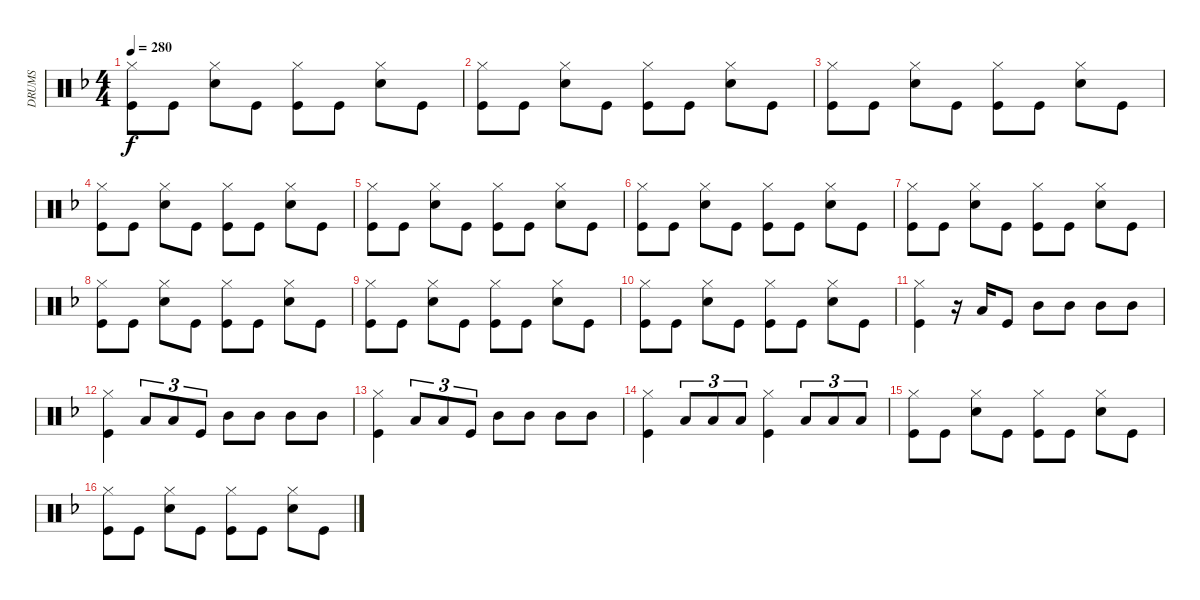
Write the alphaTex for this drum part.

\track ("DRUMS" "DRUMS") {instrument percussion}
\staff {score}
\articulation defaults
\ts (4 4)
\tempo 280
\clef neutral
\ks dminor
("Hi-Hat (closed)" "Kick (hit)").8{dy f} "Kick (hit)".8 ("Hi-Hat (closed)" "Snare (hit) 2").8 "Kick (hit)".8 ("Hi-Hat (closed)" "Kick (hit)").8 "Kick (hit)".8 ("Hi-Hat (closed)" "Snare (hit) 2").8 "Kick (hit)".8 |
("Hi-Hat (closed)" "Kick (hit)").8 "Kick (hit)".8 ("Hi-Hat (closed)" "Snare (hit) 2").8 "Kick (hit)".8 ("Hi-Hat (closed)" "Kick (hit)").8 "Kick (hit)".8 ("Hi-Hat (closed)" "Snare (hit) 2").8 "Kick (hit)".8 |
("Hi-Hat (closed)" "Kick (hit)").8 "Kick (hit)".8 ("Hi-Hat (closed)" "Snare (hit) 2").8 "Kick (hit)".8 ("Hi-Hat (closed)" "Kick (hit)").8 "Kick (hit)".8 ("Hi-Hat (closed)" "Snare (hit) 2").8 "Kick (hit)".8 |
("Hi-Hat (closed)" "Kick (hit)").8 "Kick (hit)".8 ("Hi-Hat (closed)" "Snare (hit) 2").8 "Kick (hit)".8 ("Hi-Hat (closed)" "Kick (hit)").8 "Kick (hit)".8 ("Hi-Hat (closed)" "Snare (hit) 2").8 "Kick (hit)".8 |
("Hi-Hat (closed)" "Kick (hit)").8 "Kick (hit)".8 ("Hi-Hat (closed)" "Snare (hit) 2").8 "Kick (hit)".8 ("Hi-Hat (closed)" "Kick (hit)").8 "Kick (hit)".8 ("Hi-Hat (closed)" "Snare (hit) 2").8 "Kick (hit)".8 |
("Hi-Hat (closed)" "Kick (hit)").8 "Kick (hit)".8 ("Hi-Hat (closed)" "Snare (hit) 2").8 "Kick (hit)".8 ("Hi-Hat (closed)" "Kick (hit)").8 "Kick (hit)".8 ("Hi-Hat (closed)" "Snare (hit) 2").8 "Kick (hit)".8 |
("Hi-Hat (closed)" "Kick (hit)").8 "Kick (hit)".8 ("Hi-Hat (closed)" "Snare (hit) 2").8 "Kick (hit)".8 ("Hi-Hat (closed)" "Kick (hit)").8 "Kick (hit)".8 ("Hi-Hat (closed)" "Snare (hit) 2").8 "Kick (hit)".8 |
("Hi-Hat (closed)" "Kick (hit)").8 "Kick (hit)".8 ("Hi-Hat (closed)" "Snare (hit) 2").8 "Kick (hit)".8 ("Hi-Hat (closed)" "Kick (hit)").8 "Kick (hit)".8 ("Hi-Hat (closed)" "Snare (hit) 2").8 "Kick (hit)".8 |
("Hi-Hat (closed)" "Kick (hit)").8 "Kick (hit)".8 ("Hi-Hat (closed)" "Snare (hit) 2").8 "Kick (hit)".8 ("Hi-Hat (closed)" "Kick (hit)").8 "Kick (hit)".8 ("Hi-Hat (closed)" "Snare (hit) 2").8 "Kick (hit)".8 |
("Hi-Hat (closed)" "Kick (hit)").8 "Kick (hit)".8 ("Hi-Hat (closed)" "Snare (hit) 2").8 "Kick (hit)".8 ("Hi-Hat (closed)" "Kick (hit)").8 "Kick (hit)".8 ("Hi-Hat (closed)" "Snare (hit) 2").8 "Kick (hit)".8 |
("Hi-Hat (closed)" "Kick (hit)").4 r.16 "Low Tom (hit)".16 "Kick (hit)".8 "Mid Tom (hit)".8 "Mid Tom (hit)".8 "Mid Tom (hit)".8 "Mid Tom (hit)".8 |
("Hi-Hat (closed)" "Kick (hit)").4 "Low Tom (hit)".8{tu (3 2)} "Low Tom (hit)".8{tu (3 2)} "Kick (hit)".8{tu (3 2)} "Mid Tom (hit)".8 "Mid Tom (hit)".8 "Mid Tom (hit)".8 "Mid Tom (hit)".8 |
("Hi-Hat (closed)" "Kick (hit)").4 "Low Tom (hit)".8{tu (3 2)} "Low Tom (hit)".8{tu (3 2)} "Kick (hit)".8{tu (3 2)} "Mid Tom (hit)".8 "Mid Tom (hit)".8 "Mid Tom (hit)".8 "Mid Tom (hit)".8 |
("Hi-Hat (closed)" "Kick (hit)").4 "Low Tom (hit)".8{tu (3 2)} "Low Tom (hit)".8{tu (3 2)} "Low Tom (hit)".8{tu (3 2)} ("Hi-Hat (closed)" "Kick (hit)").4 "Low Tom (hit)".8{tu (3 2)} "Low Tom (hit)".8{tu (3 2)} "Low Tom (hit)".8{tu (3 2)} |
("Hi-Hat (closed)" "Kick (hit)").8 "Kick (hit)".8 ("Hi-Hat (closed)" "Snare (hit) 2").8 "Kick (hit)".8 ("Hi-Hat (closed)" "Kick (hit)").8 "Kick (hit)".8 ("Hi-Hat (closed)" "Snare (hit) 2").8 "Kick (hit)".8 |
("Hi-Hat (closed)" "Kick (hit)").8 "Kick (hit)".8 ("Hi-Hat (closed)" "Snare (hit) 2").8 "Kick (hit)".8 ("Hi-Hat (closed)" "Kick (hit)").8 "Kick (hit)".8 ("Hi-Hat (closed)" "Snare (hit) 2").8 "Kick (hit)".8
